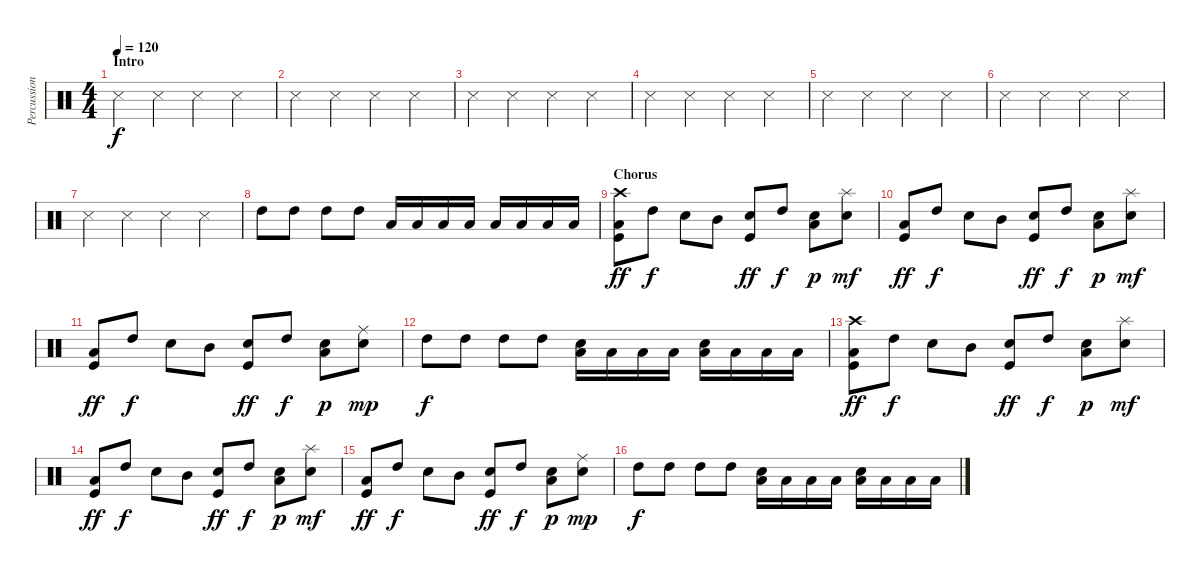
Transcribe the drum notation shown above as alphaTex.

\track ("Percussion" "Percussion") {instrument percussion}
\staff {score}
\articulation defaults
\ts (4 4)
\section ("" "Intro")
\tempo 120
\clef neutral
\ks c "Snare (side stick) 3".4{dy f} "Snare (side stick) 3".4 "Snare (side stick) 3".4 "Snare (side stick) 3".4
|
"Snare (side stick) 3".4 "Snare (side stick) 3".4 "Snare (side stick) 3".4 "Snare (side stick) 3".4 |
"Snare (side stick) 3".4 "Snare (side stick) 3".4 "Snare (side stick) 3".4 "Snare (side stick) 3".4 |
"Snare (side stick) 3".4 "Snare (side stick) 3".4 "Snare (side stick) 3".4 "Snare (side stick) 3".4 |
"Snare (side stick) 3".4 "Snare (side stick) 3".4 "Snare (side stick) 3".4 "Snare (side stick) 3".4 |
"Snare (side stick) 3".4 "Snare (side stick) 3".4 "Snare (side stick) 3".4 "Snare (side stick) 3".4 |
"Snare (side stick) 3".4 "Snare (side stick) 3".4 "Snare (side stick) 3".4 "Snare (side stick) 3".4 |
"High Tom (hit)".8 "High Tom (hit)".8 "High Tom (hit)".8 "High Tom (hit)".8 "Low Tom (hit)".16 "Low Tom (hit)".16 "Low Tom (hit)".16 "Low Tom (hit)".16 "Low Tom (hit)".16 "Low Tom (hit)".16 "Low Tom (hit)".16 "Low Tom (hit)".16 |
\section ("" "Chorus")
("Kick (hit)" "Low Tom (hit)" "Crash high (hit)").8{dy ff} "High Tom (hit)".8{dy f} "Snare (hit) 2".8 "Mid Tom (hit)".8 ("Kick (hit)" "Snare (hit) 2").8{dy ff} "High Tom (hit)".8{dy f} ("Snare (hit) 2" "Low Tom (hit)").8{dy p} ("Splash (hit)" "Snare (hit) 2").8{dy mf} |
("Kick (hit)" "Low Tom (hit)").8{dy ff} "High Tom (hit)".8{dy f} "Snare (hit) 2".8 "Mid Tom (hit)".8 ("Kick (hit)" "Snare (hit) 2").8{dy ff} "High Tom (hit)".8{dy f} ("Snare (hit) 2" "Low Tom (hit)").8{dy p} ("Splash (hit)" "Snare (hit) 2").8{dy mf} |
("Kick (hit)" "Low Tom (hit)").8{dy ff} "High Tom (hit)".8{dy f} "Snare (hit) 2".8 "Mid Tom (hit)".8 ("Kick (hit)" "Snare (hit) 2").8{dy ff} "High Tom (hit)".8{dy f} ("Snare (hit) 2" "Low Tom (hit)").8{dy p} ("Ride (middle)" "Snare (hit) 2").8{dy mp} |
"High Tom (hit)".8{dy f} "High Tom (hit)".8 "High Tom (hit)".8 "High Tom (hit)".8 ("Low Tom (hit)" "Snare (hit) 2").16 "Low Tom (hit)".16 "Low Tom (hit)".16 "Low Tom (hit)".16 ("Low Tom (hit)" "Snare (hit) 2").16 "Low Tom (hit)".16 "Low Tom (hit)".16 "Low Tom (hit)".16 |
("Kick (hit)" "Low Tom (hit)" "Crash high (hit)").8{dy ff} "High Tom (hit)".8{dy f} "Snare (hit) 2".8 "Mid Tom (hit)".8 ("Kick (hit)" "Snare (hit) 2").8{dy ff} "High Tom (hit)".8{dy f} ("Snare (hit) 2" "Low Tom (hit)").8{dy p} ("Splash (hit)" "Snare (hit) 2").8{dy mf} |
("Kick (hit)" "Low Tom (hit)").8{dy ff} "High Tom (hit)".8{dy f} "Snare (hit) 2".8 "Mid Tom (hit)".8 ("Kick (hit)" "Snare (hit) 2").8{dy ff} "High Tom (hit)".8{dy f} ("Snare (hit) 2" "Low Tom (hit)").8{dy p} ("Splash (hit)" "Snare (hit) 2").8{dy mf} |
("Kick (hit)" "Low Tom (hit)").8{dy ff} "High Tom (hit)".8{dy f} "Snare (hit) 2".8 "Mid Tom (hit)".8 ("Kick (hit)" "Snare (hit) 2").8{dy ff} "High Tom (hit)".8{dy f} ("Snare (hit) 2" "Low Tom (hit)").8{dy p} ("Ride (middle)" "Snare (hit) 2").8{dy mp} |
"High Tom (hit)".8{dy f} "High Tom (hit)".8 "High Tom (hit)".8 "High Tom (hit)".8 ("Low Tom (hit)" "Snare (hit) 2").16 "Low Tom (hit)".16 "Low Tom (hit)".16 "Low Tom (hit)".16 ("Low Tom (hit)" "Snare (hit) 2").16 "Low Tom (hit)".16 "Low Tom (hit)".16 "Low Tom (hit)".16
